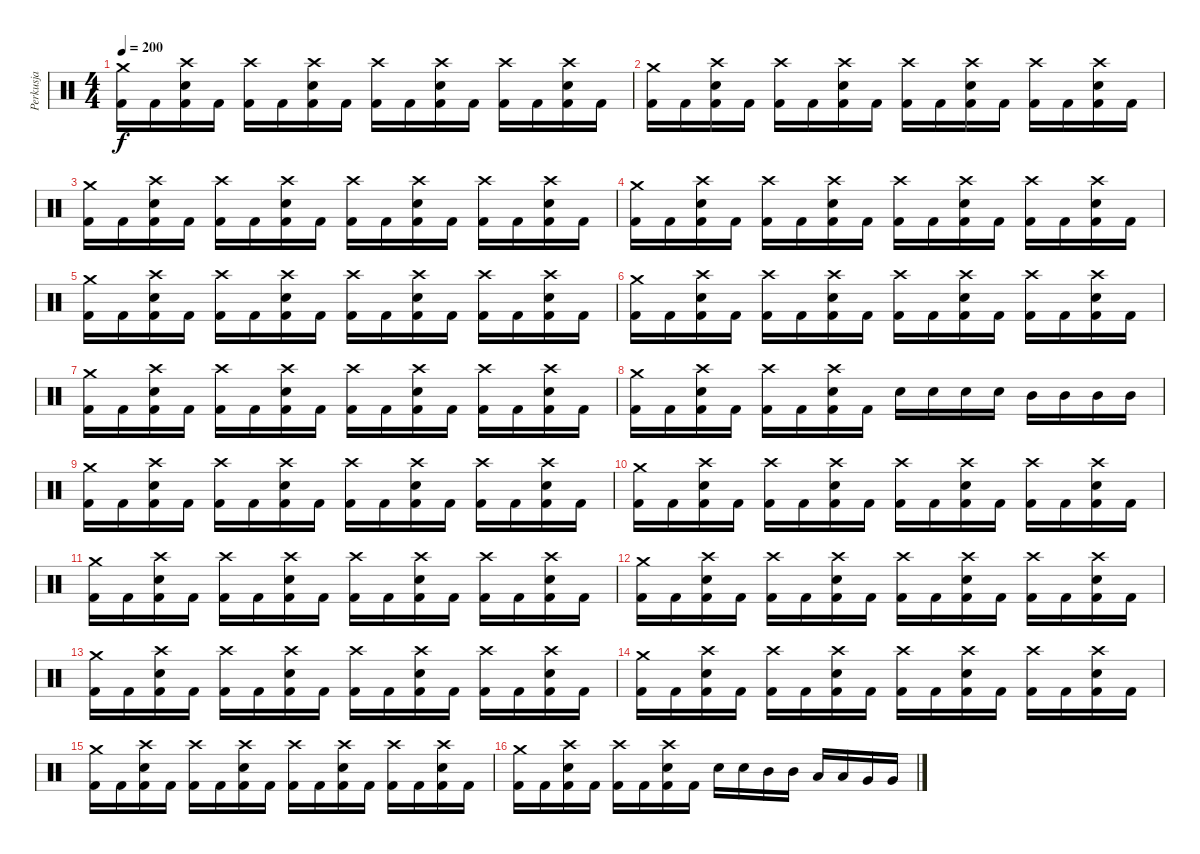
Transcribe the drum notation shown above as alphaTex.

\track ("Perkusja" "Perkusja") {instrument percussion}
\staff {score}
\articulation defaults
\ts (4 4)
\tempo 200
\clef neutral
\ks c
("Crash medium (hit)" "Kick (hit) 2").16{dy f} "Kick (hit) 2".16 ("Crash high (hit)" "Snare (hit) 2" "Kick (hit) 2").16 "Kick (hit) 2".16 ("Crash high (hit)" "Kick (hit) 2").16 "Kick (hit) 2".16 ("Crash high (hit)" "Snare (hit) 2" "Kick (hit) 2").16 "Kick (hit) 2".16 ("Crash high (hit)" "Kick (hit) 2").16 "Kick (hit) 2".16 ("Crash high (hit)" "Snare (hit) 2" "Kick (hit) 2").16 "Kick (hit) 2".16 ("Crash high (hit)" "Kick (hit) 2").16 "Kick (hit) 2".16 ("Crash high (hit)" "Snare (hit) 2" "Kick (hit) 2").16 "Kick (hit) 2".16 |
("Crash medium (hit)" "Kick (hit) 2").16 "Kick (hit) 2".16 ("Crash high (hit)" "Snare (hit) 2" "Kick (hit) 2").16 "Kick (hit) 2".16 ("Crash high (hit)" "Kick (hit) 2").16 "Kick (hit) 2".16 ("Crash high (hit)" "Snare (hit) 2" "Kick (hit) 2").16 "Kick (hit) 2".16 ("Crash high (hit)" "Kick (hit) 2").16 "Kick (hit) 2".16 ("Crash high (hit)" "Snare (hit) 2" "Kick (hit) 2").16 "Kick (hit) 2".16 ("Crash high (hit)" "Kick (hit) 2").16 "Kick (hit) 2".16 ("Crash high (hit)" "Snare (hit) 2" "Kick (hit) 2").16 "Kick (hit) 2".16 |
("Crash medium (hit)" "Kick (hit) 2").16 "Kick (hit) 2".16 ("Crash high (hit)" "Snare (hit) 2" "Kick (hit) 2").16 "Kick (hit) 2".16 ("Crash high (hit)" "Kick (hit) 2").16 "Kick (hit) 2".16 ("Crash high (hit)" "Snare (hit) 2" "Kick (hit) 2").16 "Kick (hit) 2".16 ("Crash high (hit)" "Kick (hit) 2").16 "Kick (hit) 2".16 ("Crash high (hit)" "Snare (hit) 2" "Kick (hit) 2").16 "Kick (hit) 2".16 ("Crash high (hit)" "Kick (hit) 2").16 "Kick (hit) 2".16 ("Crash high (hit)" "Snare (hit) 2" "Kick (hit) 2").16 "Kick (hit) 2".16 |
("Crash medium (hit)" "Kick (hit) 2").16 "Kick (hit) 2".16 ("Crash high (hit)" "Snare (hit) 2" "Kick (hit) 2").16 "Kick (hit) 2".16 ("Crash high (hit)" "Kick (hit) 2").16 "Kick (hit) 2".16 ("Crash high (hit)" "Snare (hit) 2" "Kick (hit) 2").16 "Kick (hit) 2".16 ("Crash high (hit)" "Kick (hit) 2").16 "Kick (hit) 2".16 ("Crash high (hit)" "Snare (hit) 2" "Kick (hit) 2").16 "Kick (hit) 2".16 ("Crash high (hit)" "Kick (hit) 2").16 "Kick (hit) 2".16 ("Crash high (hit)" "Snare (hit) 2" "Kick (hit) 2").16 "Kick (hit) 2".16 |
("Crash medium (hit)" "Kick (hit) 2").16 "Kick (hit) 2".16 ("Crash high (hit)" "Snare (hit) 2" "Kick (hit) 2").16 "Kick (hit) 2".16 ("Crash high (hit)" "Kick (hit) 2").16 "Kick (hit) 2".16 ("Crash high (hit)" "Snare (hit) 2" "Kick (hit) 2").16 "Kick (hit) 2".16 ("Crash high (hit)" "Kick (hit) 2").16 "Kick (hit) 2".16 ("Crash high (hit)" "Snare (hit) 2" "Kick (hit) 2").16 "Kick (hit) 2".16 ("Crash high (hit)" "Kick (hit) 2").16 "Kick (hit) 2".16 ("Crash high (hit)" "Snare (hit) 2" "Kick (hit) 2").16 "Kick (hit) 2".16 |
("Crash medium (hit)" "Kick (hit) 2").16 "Kick (hit) 2".16 ("Crash high (hit)" "Snare (hit) 2" "Kick (hit) 2").16 "Kick (hit) 2".16 ("Crash high (hit)" "Kick (hit) 2").16 "Kick (hit) 2".16 ("Crash high (hit)" "Snare (hit) 2" "Kick (hit) 2").16 "Kick (hit) 2".16 ("Crash high (hit)" "Kick (hit) 2").16 "Kick (hit) 2".16 ("Crash high (hit)" "Snare (hit) 2" "Kick (hit) 2").16 "Kick (hit) 2".16 ("Crash high (hit)" "Kick (hit) 2").16 "Kick (hit) 2".16 ("Crash high (hit)" "Snare (hit) 2" "Kick (hit) 2").16 "Kick (hit) 2".16 |
("Crash medium (hit)" "Kick (hit) 2").16 "Kick (hit) 2".16 ("Crash high (hit)" "Snare (hit) 2" "Kick (hit) 2").16 "Kick (hit) 2".16 ("Crash high (hit)" "Kick (hit) 2").16 "Kick (hit) 2".16 ("Crash high (hit)" "Snare (hit) 2" "Kick (hit) 2").16 "Kick (hit) 2".16 ("Crash high (hit)" "Kick (hit) 2").16 "Kick (hit) 2".16 ("Crash high (hit)" "Snare (hit) 2" "Kick (hit) 2").16 "Kick (hit) 2".16 ("Crash high (hit)" "Kick (hit) 2").16 "Kick (hit) 2".16 ("Crash high (hit)" "Snare (hit) 2" "Kick (hit) 2").16 "Kick (hit) 2".16 |
("Crash medium (hit)" "Kick (hit) 2").16 "Kick (hit) 2".16 ("Crash high (hit)" "Snare (hit) 2" "Kick (hit) 2").16 "Kick (hit) 2".16 ("Crash high (hit)" "Kick (hit) 2").16 "Kick (hit) 2".16 ("Crash high (hit)" "Snare (hit) 2" "Kick (hit) 2").16 "Kick (hit) 2".16 "Snare (hit) 2".16 "Snare (hit) 2".16 "Snare (hit) 2".16 "Snare (hit) 2".16 "Mid Tom (hit)".16 "Mid Tom (hit)".16 "Mid Tom (hit)".16 "Mid Tom (hit)".16 |
("Crash medium (hit)" "Kick (hit) 2").16 "Kick (hit) 2".16 ("Crash high (hit)" "Snare (hit) 2" "Kick (hit) 2").16 "Kick (hit) 2".16 ("Crash high (hit)" "Kick (hit) 2").16 "Kick (hit) 2".16 ("Crash high (hit)" "Snare (hit) 2" "Kick (hit) 2").16 "Kick (hit) 2".16 ("Crash high (hit)" "Kick (hit) 2").16 "Kick (hit) 2".16 ("Crash high (hit)" "Snare (hit) 2" "Kick (hit) 2").16 "Kick (hit) 2".16 ("Crash high (hit)" "Kick (hit) 2").16 "Kick (hit) 2".16 ("Crash high (hit)" "Snare (hit) 2" "Kick (hit) 2").16 "Kick (hit) 2".16 |
("Crash medium (hit)" "Kick (hit) 2").16 "Kick (hit) 2".16 ("Crash high (hit)" "Snare (hit) 2" "Kick (hit) 2").16 "Kick (hit) 2".16 ("Crash high (hit)" "Kick (hit) 2").16 "Kick (hit) 2".16 ("Crash high (hit)" "Snare (hit) 2" "Kick (hit) 2").16 "Kick (hit) 2".16 ("Crash high (hit)" "Kick (hit) 2").16 "Kick (hit) 2".16 ("Crash high (hit)" "Snare (hit) 2" "Kick (hit) 2").16 "Kick (hit) 2".16 ("Crash high (hit)" "Kick (hit) 2").16 "Kick (hit) 2".16 ("Crash high (hit)" "Snare (hit) 2" "Kick (hit) 2").16 "Kick (hit) 2".16 |
("Crash medium (hit)" "Kick (hit) 2").16 "Kick (hit) 2".16 ("Crash high (hit)" "Snare (hit) 2" "Kick (hit) 2").16 "Kick (hit) 2".16 ("Crash high (hit)" "Kick (hit) 2").16 "Kick (hit) 2".16 ("Crash high (hit)" "Snare (hit) 2" "Kick (hit) 2").16 "Kick (hit) 2".16 ("Crash high (hit)" "Kick (hit) 2").16 "Kick (hit) 2".16 ("Crash high (hit)" "Snare (hit) 2" "Kick (hit) 2").16 "Kick (hit) 2".16 ("Crash high (hit)" "Kick (hit) 2").16 "Kick (hit) 2".16 ("Crash high (hit)" "Snare (hit) 2" "Kick (hit) 2").16 "Kick (hit) 2".16 |
("Crash medium (hit)" "Kick (hit) 2").16 "Kick (hit) 2".16 ("Crash high (hit)" "Snare (hit) 2" "Kick (hit) 2").16 "Kick (hit) 2".16 ("Crash high (hit)" "Kick (hit) 2").16 "Kick (hit) 2".16 ("Crash high (hit)" "Snare (hit) 2" "Kick (hit) 2").16 "Kick (hit) 2".16 ("Crash high (hit)" "Kick (hit) 2").16 "Kick (hit) 2".16 ("Crash high (hit)" "Snare (hit) 2" "Kick (hit) 2").16 "Kick (hit) 2".16 ("Crash high (hit)" "Kick (hit) 2").16 "Kick (hit) 2".16 ("Crash high (hit)" "Snare (hit) 2" "Kick (hit) 2").16 "Kick (hit) 2".16 |
("Crash medium (hit)" "Kick (hit) 2").16 "Kick (hit) 2".16 ("Crash high (hit)" "Snare (hit) 2" "Kick (hit) 2").16 "Kick (hit) 2".16 ("Crash high (hit)" "Kick (hit) 2").16 "Kick (hit) 2".16 ("Crash high (hit)" "Snare (hit) 2" "Kick (hit) 2").16 "Kick (hit) 2".16 ("Crash high (hit)" "Kick (hit) 2").16 "Kick (hit) 2".16 ("Crash high (hit)" "Snare (hit) 2" "Kick (hit) 2").16 "Kick (hit) 2".16 ("Crash high (hit)" "Kick (hit) 2").16 "Kick (hit) 2".16 ("Crash high (hit)" "Snare (hit) 2" "Kick (hit) 2").16 "Kick (hit) 2".16 |
("Crash medium (hit)" "Kick (hit) 2").16 "Kick (hit) 2".16 ("Crash high (hit)" "Snare (hit) 2" "Kick (hit) 2").16 "Kick (hit) 2".16 ("Crash high (hit)" "Kick (hit) 2").16 "Kick (hit) 2".16 ("Crash high (hit)" "Snare (hit) 2" "Kick (hit) 2").16 "Kick (hit) 2".16 ("Crash high (hit)" "Kick (hit) 2").16 "Kick (hit) 2".16 ("Crash high (hit)" "Snare (hit) 2" "Kick (hit) 2").16 "Kick (hit) 2".16 ("Crash high (hit)" "Kick (hit) 2").16 "Kick (hit) 2".16 ("Crash high (hit)" "Snare (hit) 2" "Kick (hit) 2").16 "Kick (hit) 2".16 |
("Crash medium (hit)" "Kick (hit) 2").16 "Kick (hit) 2".16 ("Crash high (hit)" "Snare (hit) 2" "Kick (hit) 2").16 "Kick (hit) 2".16 ("Crash high (hit)" "Kick (hit) 2").16 "Kick (hit) 2".16 ("Crash high (hit)" "Snare (hit) 2" "Kick (hit) 2").16 "Kick (hit) 2".16 ("Crash high (hit)" "Kick (hit) 2").16 "Kick (hit) 2".16 ("Crash high (hit)" "Snare (hit) 2" "Kick (hit) 2").16 "Kick (hit) 2".16 ("Crash high (hit)" "Kick (hit) 2").16 "Kick (hit) 2".16 ("Crash high (hit)" "Snare (hit) 2" "Kick (hit) 2").16 "Kick (hit) 2".16 |
("Crash medium (hit)" "Kick (hit) 2").16 "Kick (hit) 2".16 ("Crash high (hit)" "Snare (hit) 2" "Kick (hit) 2").16 "Kick (hit) 2".16 ("Crash high (hit)" "Kick (hit) 2").16 "Kick (hit) 2".16 ("Crash high (hit)" "Snare (hit) 2" "Kick (hit) 2").16 "Kick (hit) 2".16 "Snare (hit) 2".16 "Snare (hit) 2".16 "Mid Tom (hit)".16 "Mid Tom (hit)".16 "Low Tom (hit)".16 "Low Tom (hit)".16 "Very Low Tom (hit)".16 "Very Low Tom (hit)".16
